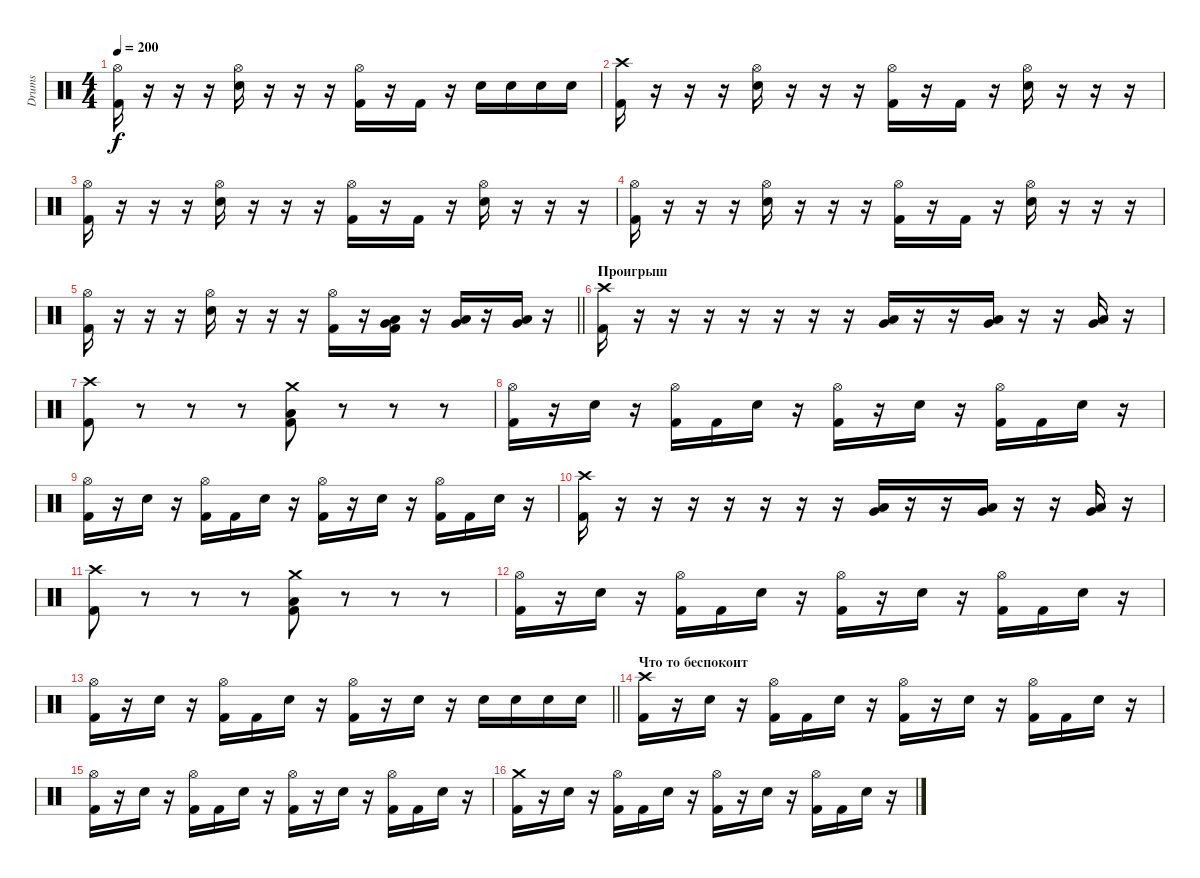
\track ("Drums" "Drums") {instrument percussion}
\staff {score}
\articulation defaults
\ts (4 4)
\tempo 200
\clef neutral
\ks c
("Hi-Hat (open)" "Kick (hit) 2").16{dy f} r.16 r.16 r.16 ("Hi-Hat (open)" "Electric Snare (hit)").16 r.16 r.16 r.16 ("Hi-Hat (open)" "Kick (hit) 2").16 r.16 "Kick (hit) 2".16 r.16 "Electric Snare (hit)".16 "Electric Snare (hit)".16 "Electric Snare (hit)".16 "Electric Snare (hit)".16 |
("Crash high (hit)" "Kick (hit) 2").16 r.16 r.16 r.16 ("Hi-Hat (open)" "Electric Snare (hit)").16 r.16 r.16 r.16 ("Hi-Hat (open)" "Kick (hit) 2").16 r.16 "Kick (hit) 2".16 r.16 ("Hi-Hat (open)" "Electric Snare (hit)").16 r.16 r.16 r.16 |
("Hi-Hat (open)" "Kick (hit) 2").16 r.16 r.16 r.16 ("Hi-Hat (open)" "Electric Snare (hit)").16 r.16 r.16 r.16 ("Hi-Hat (open)" "Kick (hit) 2").16 r.16 "Kick (hit) 2".16 r.16 ("Hi-Hat (open)" "Electric Snare (hit)").16 r.16 r.16 r.16 |
("Hi-Hat (open)" "Kick (hit) 2").16 r.16 r.16 r.16 ("Hi-Hat (open)" "Electric Snare (hit)").16 r.16 r.16 r.16 ("Hi-Hat (open)" "Kick (hit) 2").16 r.16 "Kick (hit) 2".16 r.16 ("Hi-Hat (open)" "Electric Snare (hit)").16 r.16 r.16 r.16 |
\barLineRight lightlight
("Hi-Hat (open)" "Kick (hit) 2").16 r.16 r.16 r.16 ("Hi-Hat (open)" "Electric Snare (hit)").16 r.16 r.16 r.16 ("Hi-Hat (open)" "Kick (hit) 2").16 r.16 ("Kick (hit) 2" "Low Tom (hit)" "Very Low Tom (hit)").16 r.16 ("Low Tom (hit)" "Very Low Tom (hit)").16 r.16 ("Low Tom (hit)" "Very Low Tom (hit)").16 r.16 |
\section ("" "Проигрыш")
("Crash high (hit)" "Kick (hit) 2").16 r.16 r.16 r.16 r.16 r.16 r.16 r.16 ("Low Tom (hit)" "Very Low Tom (hit)").16 r.16 r.16 ("Low Tom (hit)" "Very Low Tom (hit)").16 r.16 r.16 ("Low Tom (hit)" "Very Low Tom (hit)").16 r.16 |
("Crash high (hit)" "Kick (hit) 2").8 r.8 r.8 r.8 ("Crash medium (hit)" "Kick (hit) 2" "Low Tom (hit)").8 r.8 r.8 r.8 |
("Hi-Hat (open)" "Kick (hit) 2").16 r.16 "Electric Snare (hit)".16 r.16 ("Hi-Hat (open)" "Kick (hit) 2").16 "Kick (hit) 2".16 "Electric Snare (hit)".16 r.16 ("Hi-Hat (open)" "Kick (hit) 2").16 r.16 "Electric Snare (hit)".16 r.16 ("Hi-Hat (open)" "Kick (hit) 2").16 "Kick (hit) 2".16 "Electric Snare (hit)".16 r.16 |
("Hi-Hat (open)" "Kick (hit) 2").16 r.16 "Electric Snare (hit)".16 r.16 ("Hi-Hat (open)" "Kick (hit) 2").16 "Kick (hit) 2".16 "Electric Snare (hit)".16 r.16 ("Hi-Hat (open)" "Kick (hit) 2").16 r.16 "Electric Snare (hit)".16 r.16 ("Hi-Hat (open)" "Kick (hit) 2").16 "Kick (hit) 2".16 "Electric Snare (hit)".16 r.16 |
("Crash high (hit)" "Kick (hit) 2").16 r.16 r.16 r.16 r.16 r.16 r.16 r.16 ("Low Tom (hit)" "Very Low Tom (hit)").16 r.16 r.16 ("Low Tom (hit)" "Very Low Tom (hit)").16 r.16 r.16 ("Low Tom (hit)" "Very Low Tom (hit)").16 r.16 |
("Crash high (hit)" "Kick (hit) 2").8 r.8 r.8 r.8 ("Crash medium (hit)" "Kick (hit) 2" "Low Tom (hit)").8 r.8 r.8 r.8 |
("Hi-Hat (open)" "Kick (hit) 2").16 r.16 "Electric Snare (hit)".16 r.16 ("Hi-Hat (open)" "Kick (hit) 2").16 "Kick (hit) 2".16 "Electric Snare (hit)".16 r.16 ("Hi-Hat (open)" "Kick (hit) 2").16 r.16 "Electric Snare (hit)".16 r.16 ("Hi-Hat (open)" "Kick (hit) 2").16 "Kick (hit) 2".16 "Electric Snare (hit)".16 r.16 |
\barLineRight lightlight
("Hi-Hat (open)" "Kick (hit) 2").16 r.16 "Electric Snare (hit)".16 r.16 ("Hi-Hat (open)" "Kick (hit) 2").16 "Kick (hit) 2".16 "Electric Snare (hit)".16 r.16 ("Hi-Hat (open)" "Kick (hit) 2").16 r.16 "Electric Snare (hit)".16 r.16 "Electric Snare (hit)".16 "Electric Snare (hit)".16 "Electric Snare (hit)".16 "Electric Snare (hit)".16 |
\section ("" "Что то беспокоит")
("Crash high (hit)" "Kick (hit) 2").16 r.16 "Electric Snare (hit)".16 r.16 ("Hi-Hat (open)" "Kick (hit) 2").16 "Kick (hit) 2".16 "Electric Snare (hit)".16 r.16 ("Hi-Hat (open)" "Kick (hit) 2").16 r.16 "Electric Snare (hit)".16 r.16 ("Hi-Hat (open)" "Kick (hit) 2").16 "Kick (hit) 2".16 "Electric Snare (hit)".16 r.16 |
("Hi-Hat (open)" "Kick (hit) 2").16 r.16 "Electric Snare (hit)".16 r.16 ("Hi-Hat (open)" "Kick (hit) 2").16 "Kick (hit) 2".16 "Electric Snare (hit)".16 r.16 ("Hi-Hat (open)" "Kick (hit) 2").16 r.16 "Electric Snare (hit)".16 r.16 ("Hi-Hat (open)" "Kick (hit) 2").16 "Kick (hit) 2".16 "Electric Snare (hit)".16 r.16 |
("Crash medium (hit)" "Kick (hit) 2").16 r.16 "Electric Snare (hit)".16 r.16 ("Hi-Hat (open)" "Kick (hit) 2").16 "Kick (hit) 2".16 "Electric Snare (hit)".16 r.16 ("Hi-Hat (open)" "Kick (hit) 2").16 r.16 "Electric Snare (hit)".16 r.16 ("Hi-Hat (open)" "Kick (hit) 2").16 "Kick (hit) 2".16 "Electric Snare (hit)".16 r.16
